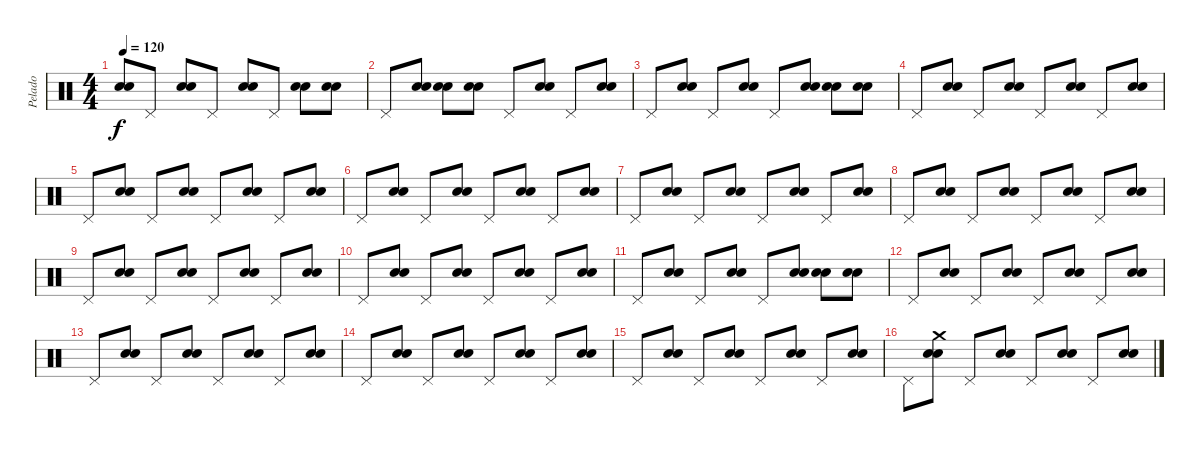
\track ("Pelado" "Pelado") {instrument percussion}
\staff {score}
\articulation defaults
\ts (4 4)
\tempo 120
\clef neutral
\ks c
("Electric Snare (hit)" "Electric Snare (hit)").8{dy f} "Pedal Hi-Hat (hit)".8 ("Electric Snare (hit)" "Electric Snare (hit)").8 "Pedal Hi-Hat (hit)".8 ("Electric Snare (hit)" "Electric Snare (hit)").8 "Pedal Hi-Hat (hit)".8 ("Electric Snare (hit)" "Electric Snare (hit)").8 ("Electric Snare (hit)" "Electric Snare (hit)").8 |
"Pedal Hi-Hat (hit)".8 ("Electric Snare (hit)" "Electric Snare (hit)").8 ("Electric Snare (hit)" "Electric Snare (hit)").8 ("Electric Snare (hit)" "Electric Snare (hit)").8 "Pedal Hi-Hat (hit)".8 ("Electric Snare (hit)" "Electric Snare (hit)").8 "Pedal Hi-Hat (hit)".8 ("Electric Snare (hit)" "Electric Snare (hit)").8 |
"Pedal Hi-Hat (hit)".8 ("Electric Snare (hit)" "Electric Snare (hit)").8 "Pedal Hi-Hat (hit)".8 ("Electric Snare (hit)" "Electric Snare (hit)").8 "Pedal Hi-Hat (hit)".8 ("Electric Snare (hit)" "Electric Snare (hit)").8 ("Electric Snare (hit)" "Electric Snare (hit)").8 ("Electric Snare (hit)" "Electric Snare (hit)").8 |
"Pedal Hi-Hat (hit)".8 ("Electric Snare (hit)" "Electric Snare (hit)").8 "Pedal Hi-Hat (hit)".8 ("Electric Snare (hit)" "Electric Snare (hit)").8 "Pedal Hi-Hat (hit)".8 ("Electric Snare (hit)" "Electric Snare (hit)").8 "Pedal Hi-Hat (hit)".8 ("Electric Snare (hit)" "Electric Snare (hit)").8 |
"Pedal Hi-Hat (hit)".8 ("Electric Snare (hit)" "Electric Snare (hit)").8 "Pedal Hi-Hat (hit)".8 ("Electric Snare (hit)" "Electric Snare (hit)").8 "Pedal Hi-Hat (hit)".8 ("Electric Snare (hit)" "Electric Snare (hit)").8 "Pedal Hi-Hat (hit)".8 ("Electric Snare (hit)" "Electric Snare (hit)").8 |
"Pedal Hi-Hat (hit)".8 ("Electric Snare (hit)" "Electric Snare (hit)").8 "Pedal Hi-Hat (hit)".8 ("Electric Snare (hit)" "Electric Snare (hit)").8 "Pedal Hi-Hat (hit)".8 ("Electric Snare (hit)" "Electric Snare (hit)").8 "Pedal Hi-Hat (hit)".8 ("Electric Snare (hit)" "Electric Snare (hit)").8 |
"Pedal Hi-Hat (hit)".8 ("Electric Snare (hit)" "Electric Snare (hit)").8 "Pedal Hi-Hat (hit)".8 ("Electric Snare (hit)" "Electric Snare (hit)").8 "Pedal Hi-Hat (hit)".8 ("Electric Snare (hit)" "Electric Snare (hit)").8 "Pedal Hi-Hat (hit)".8 ("Electric Snare (hit)" "Electric Snare (hit)").8 |
"Pedal Hi-Hat (hit)".8 ("Electric Snare (hit)" "Electric Snare (hit)").8 "Pedal Hi-Hat (hit)".8 ("Electric Snare (hit)" "Electric Snare (hit)").8 "Pedal Hi-Hat (hit)".8 ("Electric Snare (hit)" "Electric Snare (hit)").8 "Pedal Hi-Hat (hit)".8 ("Electric Snare (hit)" "Electric Snare (hit)").8 |
"Pedal Hi-Hat (hit)".8 ("Electric Snare (hit)" "Electric Snare (hit)").8 "Pedal Hi-Hat (hit)".8 ("Electric Snare (hit)" "Electric Snare (hit)").8 "Pedal Hi-Hat (hit)".8 ("Electric Snare (hit)" "Electric Snare (hit)").8 "Pedal Hi-Hat (hit)".8 ("Electric Snare (hit)" "Electric Snare (hit)").8 |
"Pedal Hi-Hat (hit)".8 ("Electric Snare (hit)" "Electric Snare (hit)").8 "Pedal Hi-Hat (hit)".8 ("Electric Snare (hit)" "Electric Snare (hit)").8 "Pedal Hi-Hat (hit)".8 ("Electric Snare (hit)" "Electric Snare (hit)").8 "Pedal Hi-Hat (hit)".8 ("Electric Snare (hit)" "Electric Snare (hit)").8 |
"Pedal Hi-Hat (hit)".8 ("Electric Snare (hit)" "Electric Snare (hit)").8 "Pedal Hi-Hat (hit)".8 ("Electric Snare (hit)" "Electric Snare (hit)").8 "Pedal Hi-Hat (hit)".8 ("Electric Snare (hit)" "Electric Snare (hit)").8 ("Snare (hit) 2" "Snare (hit) 2").8 ("Electric Snare (hit)" "Electric Snare (hit)").8 |
"Pedal Hi-Hat (hit)".8 ("Electric Snare (hit)" "Electric Snare (hit)").8 "Pedal Hi-Hat (hit)".8 ("Electric Snare (hit)" "Electric Snare (hit)").8 "Pedal Hi-Hat (hit)".8 ("Electric Snare (hit)" "Electric Snare (hit)").8 "Pedal Hi-Hat (hit)".8 ("Electric Snare (hit)" "Electric Snare (hit)").8 |
"Pedal Hi-Hat (hit)".8 ("Electric Snare (hit)" "Electric Snare (hit)").8 "Pedal Hi-Hat (hit)".8 ("Electric Snare (hit)" "Electric Snare (hit)").8 "Pedal Hi-Hat (hit)".8 ("Electric Snare (hit)" "Electric Snare (hit)").8 "Pedal Hi-Hat (hit)".8 ("Electric Snare (hit)" "Electric Snare (hit)").8 |
"Pedal Hi-Hat (hit)".8 ("Electric Snare (hit)" "Electric Snare (hit)").8 "Pedal Hi-Hat (hit)".8 ("Electric Snare (hit)" "Electric Snare (hit)").8 "Pedal Hi-Hat (hit)".8 ("Electric Snare (hit)" "Electric Snare (hit)").8 "Pedal Hi-Hat (hit)".8 ("Electric Snare (hit)" "Electric Snare (hit)").8 |
"Pedal Hi-Hat (hit)".8 ("Electric Snare (hit)" "Electric Snare (hit)").8 "Pedal Hi-Hat (hit)".8 ("Electric Snare (hit)" "Electric Snare (hit)").8 "Pedal Hi-Hat (hit)".8 ("Electric Snare (hit)" "Electric Snare (hit)").8 "Pedal Hi-Hat (hit)".8 ("Electric Snare (hit)" "Electric Snare (hit)").8 |
"Pedal Hi-Hat (hit)".8 ("Crash medium (hit)" "Electric Snare (hit)" "Electric Snare (hit)").8 "Pedal Hi-Hat (hit)".8 ("Electric Snare (hit)" "Electric Snare (hit)").8 "Pedal Hi-Hat (hit)".8 ("Electric Snare (hit)" "Electric Snare (hit)").8 "Pedal Hi-Hat (hit)".8 ("Electric Snare (hit)" "Electric Snare (hit)").8
